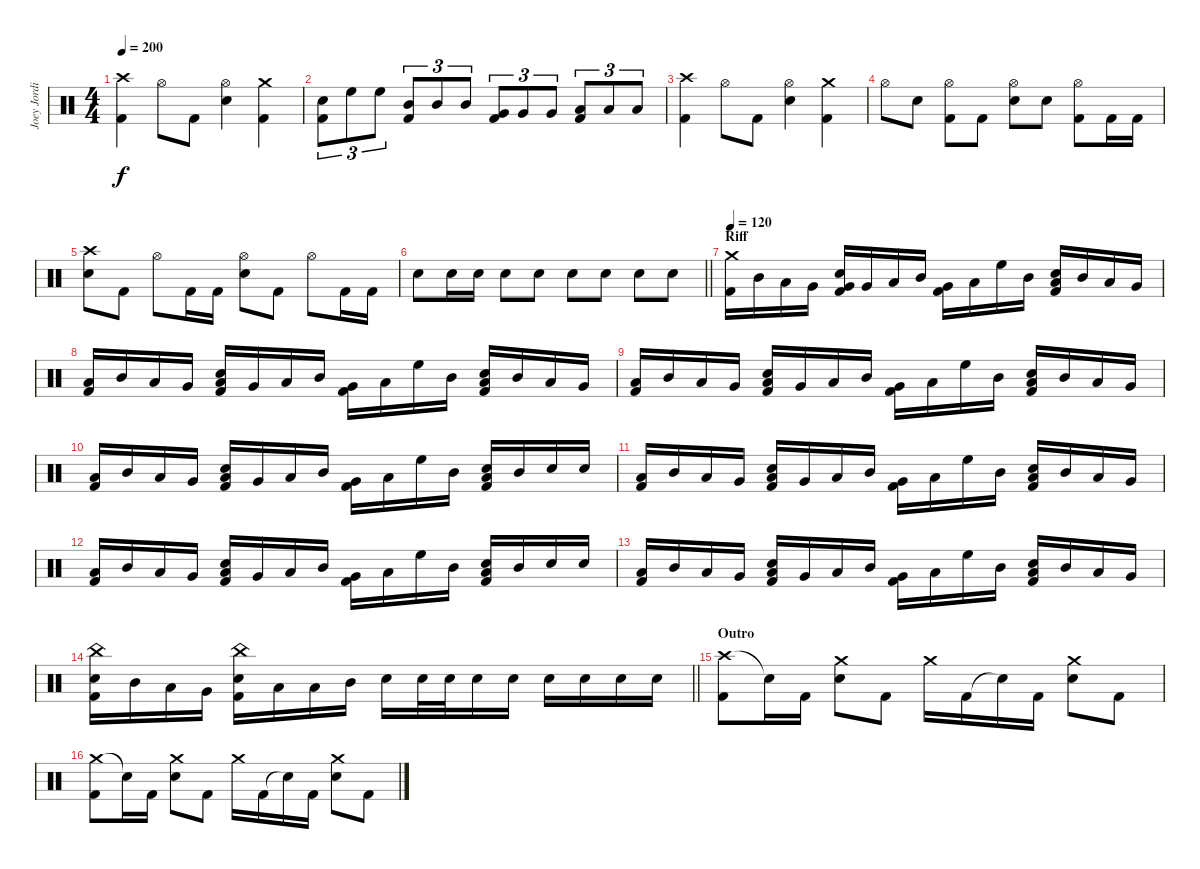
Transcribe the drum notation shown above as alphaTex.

\track ("Joey Jordison" "Joey Jordi") {instrument percussion}
\staff {score}
\articulation defaults
\ts (4 4)
\tempo 200
\clef neutral
\ks c
("Crash high (hit)" "Kick (hit) 2").4{dy f} "Hi-Hat (open)".8 "Kick (hit) 2".8 ("Hi-Hat (open)" "Electric Snare (hit)").4 ("Crash medium (hit)" "Kick (hit) 2").4 |
("Electric Snare (hit)" "Kick (hit) 2").8{tu (3 2)} "High Floor Tom (hit)".8{tu (3 2)} "High Floor Tom (hit)".8{tu (3 2)} ("Mid Tom (hit)" "Kick (hit) 2").8{tu (3 2)} "Mid Tom (hit)".8{tu (3 2)} "Mid Tom (hit)".8{tu (3 2)} ("Very Low Tom (hit)" "Kick (hit) 2").8{tu (3 2)} "Very Low Tom (hit)".8{tu (3 2)} "Very Low Tom (hit)".8{tu (3 2)} ("Low Floor Tom (hit)" "Kick (hit) 2").8{tu (3 2)} "Low Floor Tom (hit)".8{tu (3 2)} "Low Floor Tom (hit)".8{tu (3 2)} |
("Crash high (hit)" "Kick (hit) 2").4 "Hi-Hat (open)".8 "Kick (hit) 2".8 ("Hi-Hat (open)" "Electric Snare (hit)").4 ("Crash medium (hit)" "Kick (hit) 2").4 |
"Hi-Hat (open)".8 "Electric Snare (hit)".8 ("Hi-Hat (open)" "Kick (hit) 2").8 "Kick (hit) 2".8 ("Hi-Hat (open)" "Electric Snare (hit)").8 "Electric Snare (hit)".8 ("Hi-Hat (open)" "Kick (hit) 2").8 "Kick (hit) 2".16 "Kick (hit) 2".16 |
("Crash high (hit)" "Electric Snare (hit)").8 "Kick (hit) 2".8 "Hi-Hat (open)".8 "Kick (hit) 2".16 "Kick (hit) 2".16 ("Hi-Hat (open)" "Electric Snare (hit)").8 "Kick (hit) 2".8 "Hi-Hat (open)".8 "Kick (hit) 2".16 "Kick (hit) 2".16 |
\barLineRight lightlight "Electric Snare (hit)".8 "Electric Snare (hit)".16 "Electric Snare (hit)".16 "Electric Snare (hit)".8 "Electric Snare (hit)".8 "Electric Snare (hit)".8 "Electric Snare (hit)".8 "Electric Snare (hit)".8 "Electric Snare (hit)".8
|
\section ("" "Riff")
\tempo 120
("Crash medium (hit)" "Kick (hit) 2").16 "Mid Tom (hit)".16 "Low Floor Tom (hit)".16 "Very Low Tom (hit)".16 ("Very Low Tom (hit)" "Electric Snare (hit)" "Kick (hit) 2").16 "Very Low Tom (hit)".16 "Low Floor Tom (hit)".16 "Mid Tom (hit)".16 ("Very Low Tom (hit)" "Kick (hit) 2").16 "Low Floor Tom (hit)".16 "High Floor Tom (hit)".16 "Mid Tom (hit)".16 ("Low Floor Tom (hit)" "Electric Snare (hit)" "Kick (hit) 2").16 "Mid Tom (hit)".16 "Low Floor Tom (hit)".16 "Very Low Tom (hit)".16 |
("Low Floor Tom (hit)" "Kick (hit) 2").16 "Mid Tom (hit)".16 "Low Floor Tom (hit)".16 "Very Low Tom (hit)".16 ("Low Floor Tom (hit)" "Electric Snare (hit)" "Kick (hit) 2").16 "Very Low Tom (hit)".16 "Low Floor Tom (hit)".16 "Mid Tom (hit)".16 ("Very Low Tom (hit)" "Kick (hit) 2").16 "Low Floor Tom (hit)".16 "High Floor Tom (hit)".16 "Mid Tom (hit)".16 ("Low Floor Tom (hit)" "Electric Snare (hit)" "Kick (hit) 2").16 "Mid Tom (hit)".16 "Low Floor Tom (hit)".16 "Very Low Tom (hit)".16 |
("Low Floor Tom (hit)" "Kick (hit) 2").16 "Mid Tom (hit)".16 "Low Floor Tom (hit)".16 "Very Low Tom (hit)".16 ("Low Floor Tom (hit)" "Electric Snare (hit)" "Kick (hit) 2").16 "Very Low Tom (hit)".16 "Low Floor Tom (hit)".16 "Mid Tom (hit)".16 ("Very Low Tom (hit)" "Kick (hit) 2").16 "Low Floor Tom (hit)".16 "High Floor Tom (hit)".16 "Mid Tom (hit)".16 ("Low Floor Tom (hit)" "Electric Snare (hit)" "Kick (hit) 2").16 "Mid Tom (hit)".16 "Low Floor Tom (hit)".16 "Very Low Tom (hit)".16 |
("Low Floor Tom (hit)" "Kick (hit) 2").16 "Mid Tom (hit)".16 "Low Floor Tom (hit)".16 "Very Low Tom (hit)".16 ("Low Floor Tom (hit)" "Electric Snare (hit)" "Kick (hit) 2").16 "Very Low Tom (hit)".16 "Low Floor Tom (hit)".16 "Mid Tom (hit)".16 ("Very Low Tom (hit)" "Kick (hit) 2").16 "Low Floor Tom (hit)".16 "High Floor Tom (hit)".16 "Mid Tom (hit)".16 ("Low Floor Tom (hit)" "Electric Snare (hit)" "Kick (hit) 2").16 "Mid Tom (hit)".16 "Electric Snare (hit)".16 "Electric Snare (hit)".16 |
("Low Floor Tom (hit)" "Kick (hit) 2").16 "Mid Tom (hit)".16 "Low Floor Tom (hit)".16 "Very Low Tom (hit)".16 ("Low Floor Tom (hit)" "Electric Snare (hit)" "Kick (hit) 2").16 "Very Low Tom (hit)".16 "Low Floor Tom (hit)".16 "Mid Tom (hit)".16 ("Very Low Tom (hit)" "Kick (hit) 2").16 "Low Floor Tom (hit)".16 "High Floor Tom (hit)".16 "Mid Tom (hit)".16 ("Low Floor Tom (hit)" "Electric Snare (hit)" "Kick (hit) 2").16 "Mid Tom (hit)".16 "Low Floor Tom (hit)".16 "Very Low Tom (hit)".16 |
("Low Floor Tom (hit)" "Kick (hit) 2").16 "Mid Tom (hit)".16 "Low Floor Tom (hit)".16 "Very Low Tom (hit)".16 ("Low Floor Tom (hit)" "Electric Snare (hit)" "Kick (hit) 2").16 "Very Low Tom (hit)".16 "Low Floor Tom (hit)".16 "Mid Tom (hit)".16 ("Very Low Tom (hit)" "Kick (hit) 2").16 "Low Floor Tom (hit)".16 "High Floor Tom (hit)".16 "Mid Tom (hit)".16 ("Low Floor Tom (hit)" "Electric Snare (hit)" "Kick (hit) 2").16 "Mid Tom (hit)".16 "Electric Snare (hit)".16 "Electric Snare (hit)".16 |
("Low Floor Tom (hit)" "Kick (hit) 2").16 "Mid Tom (hit)".16 "Low Floor Tom (hit)".16 "Very Low Tom (hit)".16 ("Low Floor Tom (hit)" "Electric Snare (hit)" "Kick (hit) 2").16 "Very Low Tom (hit)".16 "Low Floor Tom (hit)".16 "Mid Tom (hit)".16 ("Very Low Tom (hit)" "Kick (hit) 2").16 "Low Floor Tom (hit)".16 "High Floor Tom (hit)".16 "Mid Tom (hit)".16 ("Low Floor Tom (hit)" "Electric Snare (hit)" "Kick (hit) 2").16 "Mid Tom (hit)".16 "Low Floor Tom (hit)".16 "Very Low Tom (hit)".16 |
\barLineRight lightlight
("China (hit)" "Electric Snare (hit)" "Kick (hit) 2").16 "Mid Tom (hit)".16 "Low Floor Tom (hit)".16 "Very Low Tom (hit)".16 ("China (hit)" "Electric Snare (hit)" "Kick (hit) 2").16 "Low Tom (hit)".16 "Low Floor Tom (hit)".16 "Mid Tom (hit)".16 "Electric Snare (hit)".16 "Electric Snare (hit)".32 "Electric Snare (hit)".32 "Electric Snare (hit)".16 "Electric Snare (hit)".16 "Electric Snare (hit)".16 "Electric Snare (hit)".16 "Electric Snare (hit)".16 "Electric Snare (hit)".16 |
\section ("" "Outro")
("Crash high (hit)" "Kick (hit) 2").8 "Snare (hit)"{t}.16 "Kick (hit) 2".16 ("Crash medium (hit)" "Electric Snare (hit)").8 "Kick (hit) 2".8 "Crash medium (hit)".16 "Kick (hit) 2".16 "Snare (hit)"{t}.16 "Kick (hit) 2".16 ("Crash medium (hit)" "Electric Snare (hit)").8 "Kick (hit) 2".8 |
("Crash medium (hit)" "Kick (hit) 2").8 "Snare (hit)"{t}.16 "Kick (hit) 2".16 ("Crash medium (hit)" "Electric Snare (hit)").8 "Kick (hit) 2".8 "Crash medium (hit)".16 "Kick (hit) 2".16 "Snare (hit)"{t}.16 "Kick (hit) 2".16 ("Crash medium (hit)" "Electric Snare (hit)").8 "Kick (hit) 2".8
